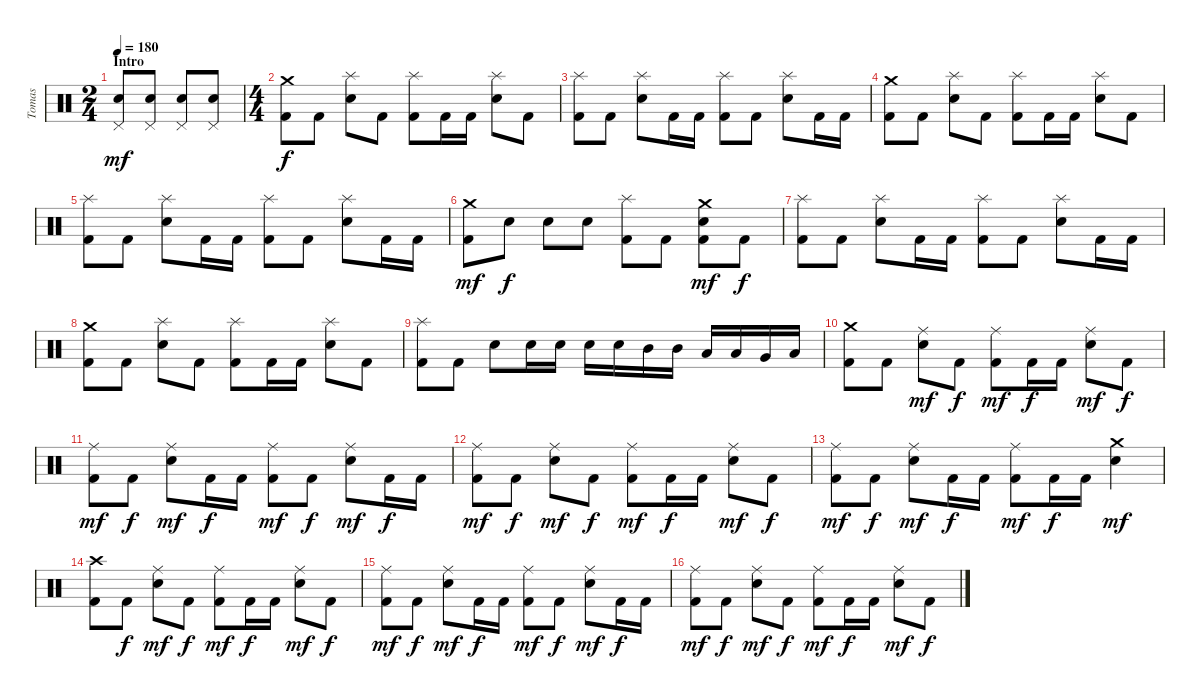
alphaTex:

\track ("Tomas" "Tomas") {instrument percussion}
\staff {score}
\articulation defaults
\ts (2 4)
\section ("" "Intro")
\tempo 180
\clef neutral
\ks c
("Electric Snare (hit)" "Pedal Hi-Hat (hit)").8{dy mf} ("Electric Snare (hit)" "Pedal Hi-Hat (hit)").8 ("Electric Snare (hit)" "Pedal Hi-Hat (hit)").8 ("Electric Snare (hit)" "Pedal Hi-Hat (hit)").8 |
\ts (4 4)
("Kick (hit) 2" "Crash medium (hit)").8{dy f} "Kick (hit) 2".8 ("Electric Snare (hit)" "Splash (hit)").8 "Kick (hit) 2".8 ("Kick (hit) 2" "Splash (hit)").8 "Kick (hit) 2".16 "Kick (hit) 2".16 ("Electric Snare (hit)" "Splash (hit)").8 "Kick (hit) 2".8 |
("Kick (hit) 2" "Splash (hit)").8 "Kick (hit) 2".8 ("Electric Snare (hit)" "Splash (hit)").8 "Kick (hit) 2".16 "Kick (hit) 2".16 ("Kick (hit) 2" "Splash (hit)").8 "Kick (hit) 2".8 ("Electric Snare (hit)" "Splash (hit)").8 "Kick (hit) 2".16 "Kick (hit) 2".16 |
("Kick (hit) 2" "Crash medium (hit)").8 "Kick (hit) 2".8 ("Electric Snare (hit)" "Splash (hit)").8 "Kick (hit) 2".8 ("Kick (hit) 2" "Splash (hit)").8 "Kick (hit) 2".16 "Kick (hit) 2".16 ("Electric Snare (hit)" "Splash (hit)").8 "Kick (hit) 2".8 |
("Kick (hit) 2" "Splash (hit)").8 "Kick (hit) 2".8 ("Electric Snare (hit)" "Splash (hit)").8 "Kick (hit) 2".16 "Kick (hit) 2".16 ("Kick (hit) 2" "Splash (hit)").8 "Kick (hit) 2".8 ("Electric Snare (hit)" "Splash (hit)").8 "Kick (hit) 2".16 "Kick (hit) 2".16 |
("Kick (hit) 2" "Crash medium (hit)").8{dy mf} "Electric Snare (hit)".8{dy f} "Electric Snare (hit)".8 "Electric Snare (hit)".8 ("Kick (hit) 2" "Splash (hit)").8 "Kick (hit) 2".8 ("Kick (hit) 2" "Electric Snare (hit)" "Crash medium (hit)").8{dy mf} "Kick (hit) 2".8{dy f} |
("Kick (hit) 2" "Splash (hit)").8 "Kick (hit) 2".8 ("Electric Snare (hit)" "Splash (hit)").8 "Kick (hit) 2".16 "Kick (hit) 2".16 ("Kick (hit) 2" "Splash (hit)").8 "Kick (hit) 2".8 ("Electric Snare (hit)" "Splash (hit)").8 "Kick (hit) 2".16 "Kick (hit) 2".16 |
("Kick (hit) 2" "Crash medium (hit)").8 "Kick (hit) 2".8 ("Electric Snare (hit)" "Splash (hit)").8 "Kick (hit) 2".8 ("Kick (hit) 2" "Splash (hit)").8 "Kick (hit) 2".16 "Kick (hit) 2".16 ("Electric Snare (hit)" "Splash (hit)").8 "Kick (hit) 2".8 |
("Kick (hit) 2" "Splash (hit)").8 "Kick (hit) 2".8 "Electric Snare (hit)".8 "Electric Snare (hit)".16 "Electric Snare (hit)".16 "Electric Snare (hit)".16 "Electric Snare (hit)".16 "Mid Tom (hit)".16 "Mid Tom (hit)".16 "Low Tom (hit)".16 "Low Tom (hit)".16 "Very Low Tom (hit)".16 "Low Floor Tom (hit)".16 |
("Kick (hit) 2" "Crash medium (hit)").8 "Kick (hit) 2".8 ("Electric Snare (hit)" "Ride (middle)").8{dy mf} "Kick (hit) 2".8{dy f} ("Kick (hit) 2" "Ride (middle)").8{dy mf} "Kick (hit) 2".16{dy f} "Kick (hit) 2".16 ("Electric Snare (hit)" "Ride (middle)").8{dy mf} "Kick (hit) 2".8{dy f} |
("Kick (hit) 2" "Ride (middle)").8{dy mf} "Kick (hit) 2".8{dy f} ("Electric Snare (hit)" "Ride (middle)").8{dy mf} "Kick (hit) 2".16{dy f} "Kick (hit) 2".16 ("Kick (hit) 2" "Ride (middle)").8{dy mf} "Kick (hit) 2".8{dy f} ("Electric Snare (hit)" "Ride (middle)").8{dy mf} "Kick (hit) 2".16{dy f} "Kick (hit) 2".16 |
("Kick (hit) 2" "Ride (middle)").8{dy mf} "Kick (hit) 2".8{dy f} ("Electric Snare (hit)" "Ride (middle)").8{dy mf} "Kick (hit) 2".8{dy f} ("Kick (hit) 2" "Ride (middle)").8{dy mf} "Kick (hit) 2".16{dy f} "Kick (hit) 2".16 ("Electric Snare (hit)" "Ride (middle)").8{dy mf} "Kick (hit) 2".8{dy f} |
("Kick (hit) 2" "Ride (middle)").8{dy mf} "Kick (hit) 2".8{dy f} ("Electric Snare (hit)" "Ride (middle)").8{dy mf} "Kick (hit) 2".16{dy f} "Kick (hit) 2".16 ("Kick (hit) 2" "Ride (middle)").8{dy mf} "Kick (hit) 2".16{dy f} "Kick (hit) 2".16 ("Electric Snare (hit)" "Crash medium (hit)").4{dy mf} |
("Kick (hit) 2" "Crash high (hit)").8 "Kick (hit) 2".8{dy f} ("Electric Snare (hit)" "Ride (middle)").8{dy mf} "Kick (hit) 2".8{dy f} ("Kick (hit) 2" "Ride (middle)").8{dy mf} "Kick (hit) 2".16{dy f} "Kick (hit) 2".16 ("Electric Snare (hit)" "Ride (middle)").8{dy mf} "Kick (hit) 2".8{dy f} |
("Kick (hit) 2" "Ride (middle)").8{dy mf} "Kick (hit) 2".8{dy f} ("Electric Snare (hit)" "Ride (middle)").8{dy mf} "Kick (hit) 2".16{dy f} "Kick (hit) 2".16 ("Kick (hit) 2" "Ride (middle)").8{dy mf} "Kick (hit) 2".8{dy f} ("Electric Snare (hit)" "Ride (middle)").8{dy mf} "Kick (hit) 2".16{dy f} "Kick (hit) 2".16 |
("Kick (hit) 2" "Ride (middle)").8{dy mf} "Kick (hit) 2".8{dy f} ("Electric Snare (hit)" "Ride (middle)").8{dy mf} "Kick (hit) 2".8{dy f} ("Kick (hit) 2" "Ride (middle)").8{dy mf} "Kick (hit) 2".16{dy f} "Kick (hit) 2".16 ("Electric Snare (hit)" "Ride (middle)").8{dy mf} "Kick (hit) 2".8{dy f}
